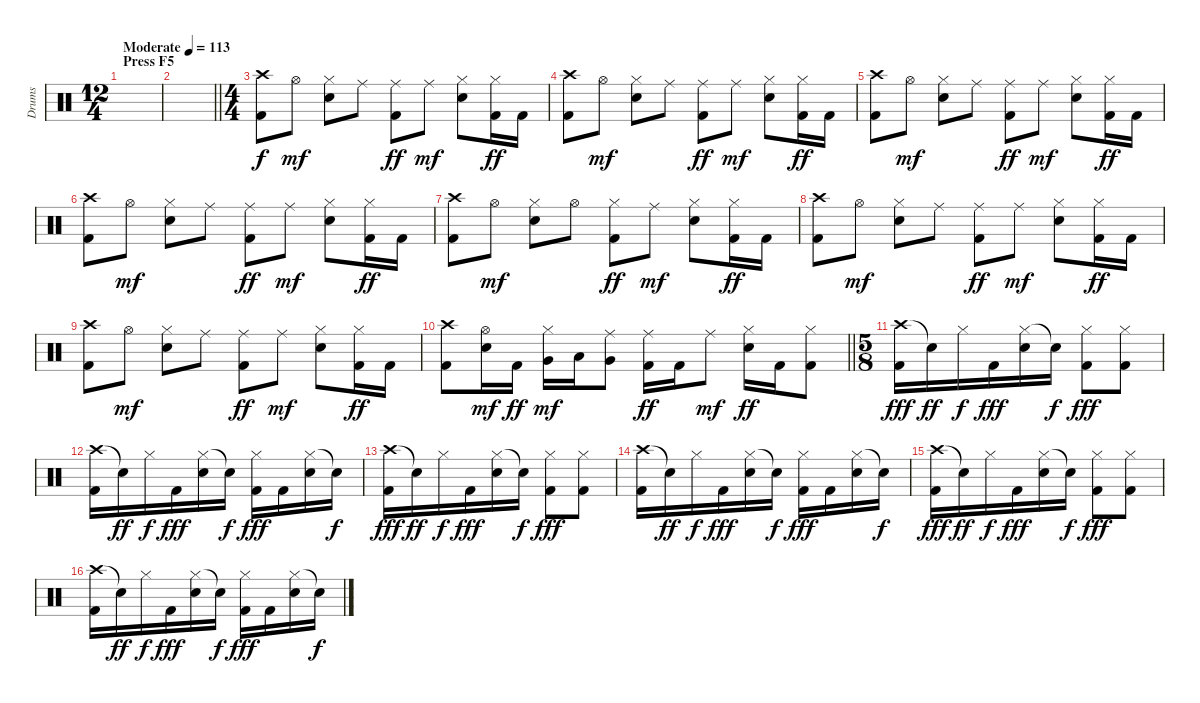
\track ("Drums" "Drums") {instrument percussion}
\staff {score}
\articulation defaults
\ts (12 4)
\section ("" "Press F5")
\tempo (113 "Moderate")
\clef neutral
\ks c
|
\barLineRight lightlight
|
\ts (4 4)
("Crash high (hit)" "Kick (hit) 2").8 "Hi-Hat (open)".8{dy mf} ("Hi-Hat (closed)" "Snare (hit) 2").8 "Ride (middle)".8 ("Ride (middle)" "Kick (hit) 2").8{dy ff} "Ride (middle)".8{dy mf} ("Hi-Hat (closed)" "Snare (hit) 2").8 ("Hi-Hat (closed)" "Kick (hit) 2").16{dy ff} "Kick (hit) 2".16 |
("Crash high (hit)" "Kick (hit) 2").8 "Hi-Hat (open)".8{dy mf} ("Hi-Hat (closed)" "Snare (hit) 2").8 "Ride (middle)".8 ("Ride (middle)" "Kick (hit) 2").8{dy ff} "Ride (middle)".8{dy mf} ("Hi-Hat (closed)" "Snare (hit) 2").8 ("Hi-Hat (closed)" "Kick (hit) 2").16{dy ff} "Kick (hit) 2".16 |
("Crash high (hit)" "Kick (hit) 2").8 "Hi-Hat (open)".8{dy mf} ("Hi-Hat (closed)" "Snare (hit) 2").8 "Ride (middle)".8 ("Ride (middle)" "Kick (hit) 2").8{dy ff} "Ride (middle)".8{dy mf} ("Hi-Hat (closed)" "Snare (hit) 2").8 ("Hi-Hat (closed)" "Kick (hit) 2").16{dy ff} "Kick (hit) 2".16 |
("Crash high (hit)" "Kick (hit) 2").8 "Hi-Hat (open)".8{dy mf} ("Hi-Hat (closed)" "Snare (hit) 2").8 "Ride (middle)".8 ("Ride (middle)" "Kick (hit) 2").8{dy ff} "Ride (middle)".8{dy mf} ("Hi-Hat (closed)" "Snare (hit) 2").8 ("Hi-Hat (closed)" "Kick (hit) 2").16{dy ff} "Kick (hit) 2".16 |
("Crash high (hit)" "Kick (hit) 2").8 "Hi-Hat (open)".8{dy mf} ("Hi-Hat (closed)" "Snare (hit) 2").8 "Hi-Hat (open)".8 ("Hi-Hat (closed)" "Kick (hit) 2").8{dy ff} "Ride (middle)".8{dy mf} ("Hi-Hat (closed)" "Snare (hit) 2").8 ("Hi-Hat (closed)" "Kick (hit) 2").16{dy ff} "Kick (hit) 2".16 |
("Crash high (hit)" "Kick (hit) 2").8 "Hi-Hat (open)".8{dy mf} ("Hi-Hat (closed)" "Snare (hit) 2").8 "Ride (middle)".8 ("Ride (middle)" "Kick (hit) 2").8{dy ff} "Ride (middle)".8{dy mf} ("Hi-Hat (closed)" "Snare (hit) 2").8 ("Hi-Hat (closed)" "Kick (hit) 2").16{dy ff} "Kick (hit) 2".16 |
("Crash high (hit)" "Kick (hit) 2").8 "Hi-Hat (open)".8{dy mf} ("Hi-Hat (closed)" "Snare (hit) 2").8 "Ride (middle)".8 ("Ride (middle)" "Kick (hit) 2").8{dy ff} "Ride (middle)".8{dy mf} ("Hi-Hat (closed)" "Snare (hit) 2").8 ("Hi-Hat (closed)" "Kick (hit) 2").16{dy ff} "Kick (hit) 2".16 |
\barLineRight lightlight
("Crash high (hit)" "Kick (hit) 2").8 ("Hi-Hat (open)" "Snare (hit) 2").16{dy mf} "Kick (hit) 2".16{dy ff} ("Hi-Hat (closed)" "Very Low Tom (hit)").16{dy mf} "Low Floor Tom (hit)".16 ("Ride (middle)" "Very Low Tom (hit)").8 ("Ride (middle)" "Kick (hit) 2").16{dy ff} "Kick (hit) 2".16 "Ride (middle)".8{dy mf} ("Hi-Hat (closed)" "Snare (hit) 2").16{dy ff} "Kick (hit) 2".16 ("Hi-Hat (closed)" "Kick (hit) 2").8 |
\ts (5 8)
\section ("" "")
("Crash high (hit)" "Kick (hit) 2").16{dy fff} "Snare (hit)"{t}.16{dy ff} "Hi-Hat (closed)".16{dy f} "Kick (hit) 2".16{dy fff} ("Hi-Hat (closed)" "Snare (hit) 2").16 "Snare (hit)"{t}.16{dy f} ("Hi-Hat (closed)" "Kick (hit) 2").8{dy fff} ("Hi-Hat (closed)" "Kick (hit) 2").8 |
("Crash high (hit)" "Kick (hit) 2").16 "Snare (hit)"{t}.16{dy ff} "Hi-Hat (closed)".16{dy f} "Kick (hit) 2".16{dy fff} ("Hi-Hat (closed)" "Snare (hit) 2").16 "Snare (hit)"{t}.16{dy f} ("Hi-Hat (closed)" "Kick (hit) 2").16{dy fff} "Kick (hit) 2".16 ("Hi-Hat (closed)" "Snare (hit) 2").16 "Snare (hit)"{t}.16{dy f} |
("Crash high (hit)" "Kick (hit) 2").16{dy fff} "Snare (hit)"{t}.16{dy ff} "Hi-Hat (closed)".16{dy f} "Kick (hit) 2".16{dy fff} ("Hi-Hat (closed)" "Snare (hit) 2").16 "Snare (hit)"{t}.16{dy f} ("Hi-Hat (closed)" "Kick (hit) 2").8{dy fff} ("Hi-Hat (closed)" "Kick (hit) 2").8 |
("Crash high (hit)" "Kick (hit) 2").16 "Snare (hit)"{t}.16{dy ff} "Hi-Hat (closed)".16{dy f} "Kick (hit) 2".16{dy fff} ("Hi-Hat (closed)" "Snare (hit) 2").16 "Snare (hit)"{t}.16{dy f} ("Hi-Hat (closed)" "Kick (hit) 2").16{dy fff} "Kick (hit) 2".16 ("Hi-Hat (closed)" "Snare (hit) 2").16 "Snare (hit)"{t}.16{dy f} |
("Crash high (hit)" "Kick (hit) 2").16{dy fff} "Snare (hit)"{t}.16{dy ff} "Hi-Hat (closed)".16{dy f} "Kick (hit) 2".16{dy fff} ("Hi-Hat (closed)" "Snare (hit) 2").16 "Snare (hit)"{t}.16{dy f} ("Hi-Hat (closed)" "Kick (hit) 2").8{dy fff} ("Hi-Hat (closed)" "Kick (hit) 2").8 |
("Crash high (hit)" "Kick (hit) 2").16 "Snare (hit)"{t}.16{dy ff} "Hi-Hat (closed)".16{dy f} "Kick (hit) 2".16{dy fff} ("Hi-Hat (closed)" "Snare (hit) 2").16 "Snare (hit)"{t}.16{dy f} ("Hi-Hat (closed)" "Kick (hit) 2").16{dy fff} "Kick (hit) 2".16 ("Hi-Hat (closed)" "Snare (hit) 2").16 "Snare (hit)"{t}.16{dy f}
